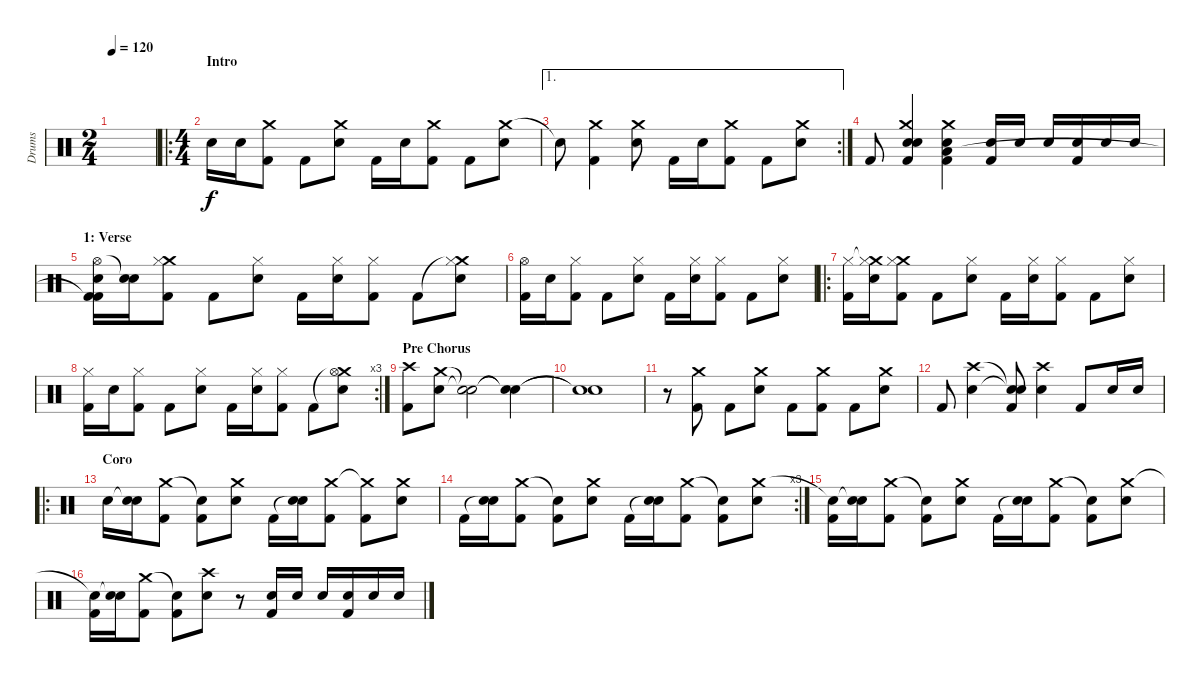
\track ("Drums" "Drums") {instrument percussion}
\staff {score}
\articulation defaults
\ts (2 4)
\tempo 120
\clef neutral
\ks c
|
\ro
\ts (4 4)
\section ("" "Intro")
"Electric Snare (hit)".16 "Electric Snare (hit)".16 ("Crash medium (hit)" "Kick (hit) 2").8 "Kick (hit) 2".8 ("Crash medium (hit)" "Electric Snare (hit)").8 "Kick (hit) 2".16 "Electric Snare (hit)".16 ("Crash medium (hit)" "Kick (hit) 2").8 "Kick (hit) 2".8 ("Crash medium (hit)" "Electric Snare (hit)").8 |
\ae 1
\rc 2 "Snare (hit)"{t}.8
("Crash medium (hit)" "Kick (hit) 2").4 ("Crash medium (hit)" "Electric Snare (hit)").8 "Kick (hit) 2".16 "Electric Snare (hit)".16 ("Crash medium (hit)" "Kick (hit) 2").8 "Kick (hit) 2".8 ("Crash medium (hit)" "Electric Snare (hit)").8 |
"Kick (hit) 2".8 ("Crash medium (hit)" "Electric Snare (hit)" "Electric Snare (hit)" "Kick (hit) 2").4 ("Crash medium (hit)" "Electric Snare (hit)" "Low Floor Tom (hit)" "Kick (hit) 2").4 ("Electric Snare (hit)" "Kick (hit) 2").16 "Electric Snare (hit)".16 "Electric Snare (hit)".16 ("Electric Snare (hit)" "Kick (hit) 2").16 "Electric Snare (hit)".16 "Electric Snare (hit)".16 |
\section ("" "1: Verse")
("Hi-Hat (open)" "Electric Snare (hit)" "Kick (hit) 2"{t} "Kick (hit) 2").16 ("Snare (hit)"{t} "Electric Snare (hit)").16 ("Crash medium (hit)" "Hi-Hat (closed)" "Kick (hit) 2").8 "Kick (hit) 2".8 ("Hi-Hat (closed)" "Electric Snare (hit)").8 "Kick (hit) 2".16 ("Hi-Hat (closed)" "Electric Snare (hit)").16 ("Hi-Hat (closed)" "Kick (hit) 2").8 "Kick (hit) 2".8 ("Crash medium (hit)"{t} "Hi-Hat (closed)" "Electric Snare (hit)").8 |
("Hi-Hat (open)" "Kick (hit) 2").16 "Electric Snare (hit)".16 ("Hi-Hat (closed)" "Kick (hit) 2").8 "Kick (hit) 2".8 ("Hi-Hat (closed)" "Electric Snare (hit)").8 "Kick (hit) 2".16 ("Hi-Hat (closed)" "Electric Snare (hit)").16 ("Hi-Hat (closed)" "Kick (hit) 2").8 "Kick (hit) 2".8 ("Hi-Hat (closed)" "Electric Snare (hit)").8 |
\ro
("Hi-Hat (closed)" "Kick (hit) 2").16 ("Crash medium (hit)"{t} "Hi-Hat (closed)" "Electric Snare (hit)").16 ("Crash medium (hit)" "Hi-Hat (closed)" "Kick (hit) 2").8 "Kick (hit) 2".8 ("Hi-Hat (closed)" "Electric Snare (hit)").8 "Kick (hit) 2".16 ("Hi-Hat (closed)" "Electric Snare (hit)").16 ("Hi-Hat (closed)" "Kick (hit) 2").8 "Kick (hit) 2".8 ("Hi-Hat (closed)" "Electric Snare (hit)").8 |
\rc 3
("Hi-Hat (closed)" "Kick (hit) 2").16 "Electric Snare (hit)".16 ("Hi-Hat (closed)" "Kick (hit) 2").8 "Kick (hit) 2".8 ("Hi-Hat (closed)" "Electric Snare (hit)").8 "Kick (hit) 2".16 ("Hi-Hat (closed)" "Electric Snare (hit)").16 ("Hi-Hat (closed)" "Kick (hit) 2").8 "Kick (hit) 2".8 ("Crash medium (hit)"{t} "Hi-Hat (open)" "Electric Snare (hit)").8 |
\section ("" "Pre Chorus")
("Crash high (hit)" "Kick (hit) 2").8 ("Crash medium (hit)" "Electric Snare (hit)").8 ("Snare (hit)"{t} "Snare (hit)"{t}).2 ("Snare (hit)"{t} "Snare (hit)"{t}).4 |
("Snare (hit)"{t} "Snare (hit)"{t}).1 |
r.8 ("Crash medium (hit)" "Kick (hit) 2").8 "Kick (hit) 2".8 ("Crash medium (hit)" "Electric Snare (hit)").8 "Kick (hit) 2".8 ("Crash medium (hit)" "Kick (hit) 2").8 "Kick (hit) 2".8 ("Crash medium (hit)" "Electric Snare (hit)").8 |
"Kick (hit) 2".8 ("Crash high (hit)" "Electric Snare (hit)").4 ("Snare (hit)"{t} "Snare (hit)"{t} "Kick (hit) 2").8 ("Crash high (hit)" "Electric Snare (hit)").4 "Kick (hit) 2".8 "Electric Snare (hit)".16 "Electric Snare (hit)".16 |
\ro
\section ("" "Coro")
"Electric Snare (hit)".16 ("Snare (hit)"{t} "Electric Snare (hit)").16 ("Crash medium (hit)" "Kick (hit) 2").8 ("Snare (hit)"{t} "Kick (hit) 2").8 ("Crash medium (hit)" "Electric Snare (hit)").8 "Kick (hit) 2".16 ("Snare (hit)"{t} "Electric Snare (hit)").16 ("Crash medium (hit)" "Kick (hit) 2").8 ("Crash medium (hit)"{t} "Kick (hit) 2").8 ("Crash medium (hit)" "Electric Snare (hit)").8 |
\rc 3 "Kick (hit) 2".16
("Snare (hit)"{t} "Electric Snare (hit)").16 ("Crash medium (hit)" "Kick (hit) 2").8 ("Snare (hit)"{t} "Kick (hit) 2").8 ("Crash medium (hit)" "Electric Snare (hit)").8 "Kick (hit) 2".16 ("Snare (hit)"{t} "Electric Snare (hit)").16 ("Crash medium (hit)" "Kick (hit) 2").8 ("Snare (hit)"{t} "Kick (hit) 2").8 ("Crash medium (hit)" "Electric Snare (hit)").8 |
("Snare (hit)"{t} "Kick (hit) 2").16 ("Snare (hit)"{t} "Electric Snare (hit)").16 ("Crash medium (hit)" "Kick (hit) 2").8 ("Snare (hit)"{t} "Kick (hit) 2").8 ("Crash medium (hit)" "Electric Snare (hit)").8 "Kick (hit) 2".16 ("Snare (hit)"{t} "Electric Snare (hit)").16 ("Crash medium (hit)" "Kick (hit) 2").8 ("Snare (hit)"{t} "Kick (hit) 2").8 ("Crash medium (hit)" "Electric Snare (hit)").8 |
("Snare (hit)"{t} "Kick (hit) 2").16 ("Snare (hit)"{t} "Electric Snare (hit)").16 ("Crash medium (hit)" "Kick (hit) 2").8 ("Snare (hit)"{t} "Kick (hit) 2").8 ("Crash high (hit)" "Electric Snare (hit)").8 r.8 ("Electric Snare (hit)" "Kick (hit) 2").16 "Electric Snare (hit)".16 "Electric Snare (hit)".16 ("Electric Snare (hit)" "Kick (hit) 2").16 "Electric Snare (hit)".16 "Electric Snare (hit)".16
